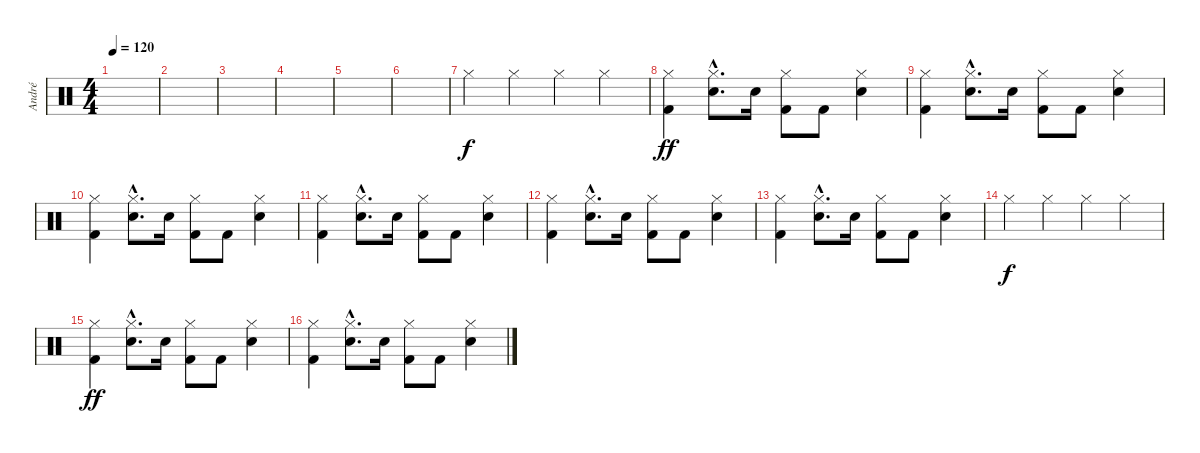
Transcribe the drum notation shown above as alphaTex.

\track ("André" "André") {instrument percussion}
\staff {score}
\articulation defaults
\ts (4 4)
\tempo 120
\clef neutral
\ks c
|
|
|
|
|
|
"Hi-Hat (closed)".4 "Hi-Hat (closed)".4 "Hi-Hat (closed)".4 "Hi-Hat (closed)".4 |
("Hi-Hat (closed)" "Kick (hit) 2").4{dy ff} ("Hi-Hat (closed)" "Electric Snare (hit)"{hac}).8{d} "Electric Snare (hit)".16 ("Hi-Hat (closed)" "Kick (hit) 2").8 "Kick (hit) 2".8 ("Hi-Hat (closed)" "Electric Snare (hit)").4 |
("Hi-Hat (closed)" "Kick (hit) 2").4 ("Hi-Hat (closed)" "Electric Snare (hit)"{hac}).8{d} "Electric Snare (hit)".16 ("Hi-Hat (closed)" "Kick (hit) 2").8 "Kick (hit) 2".8 ("Hi-Hat (closed)" "Electric Snare (hit)").4 |
("Hi-Hat (closed)" "Kick (hit) 2").4 ("Hi-Hat (closed)" "Electric Snare (hit)"{hac}).8{d} "Electric Snare (hit)".16 ("Hi-Hat (closed)" "Kick (hit) 2").8 "Kick (hit) 2".8 ("Hi-Hat (closed)" "Electric Snare (hit)").4 |
("Hi-Hat (closed)" "Kick (hit) 2").4 ("Hi-Hat (closed)" "Electric Snare (hit)"{hac}).8{d} "Electric Snare (hit)".16 ("Hi-Hat (closed)" "Kick (hit) 2").8 "Kick (hit) 2".8 ("Hi-Hat (closed)" "Electric Snare (hit)").4 |
("Hi-Hat (closed)" "Kick (hit) 2").4 ("Hi-Hat (closed)" "Electric Snare (hit)"{hac}).8{d} "Electric Snare (hit)".16 ("Hi-Hat (closed)" "Kick (hit) 2").8 "Kick (hit) 2".8 ("Hi-Hat (closed)" "Electric Snare (hit)").4 |
("Hi-Hat (closed)" "Kick (hit) 2").4 ("Hi-Hat (closed)" "Electric Snare (hit)"{hac}).8{d} "Electric Snare (hit)".16 ("Hi-Hat (closed)" "Kick (hit) 2").8 "Kick (hit) 2".8 ("Hi-Hat (closed)" "Electric Snare (hit)").4 |
"Hi-Hat (closed)".4{dy f} "Hi-Hat (closed)".4 "Hi-Hat (closed)".4 "Hi-Hat (closed)".4 |
("Hi-Hat (closed)" "Kick (hit) 2").4{dy ff} ("Hi-Hat (closed)" "Electric Snare (hit)"{hac}).8{d} "Electric Snare (hit)".16 ("Hi-Hat (closed)" "Kick (hit) 2").8 "Kick (hit) 2".8 ("Hi-Hat (closed)" "Electric Snare (hit)").4 |
("Hi-Hat (closed)" "Kick (hit) 2").4 ("Hi-Hat (closed)" "Electric Snare (hit)"{hac}).8{d} "Electric Snare (hit)".16 ("Hi-Hat (closed)" "Kick (hit) 2").8 "Kick (hit) 2".8 ("Hi-Hat (closed)" "Electric Snare (hit)").4
